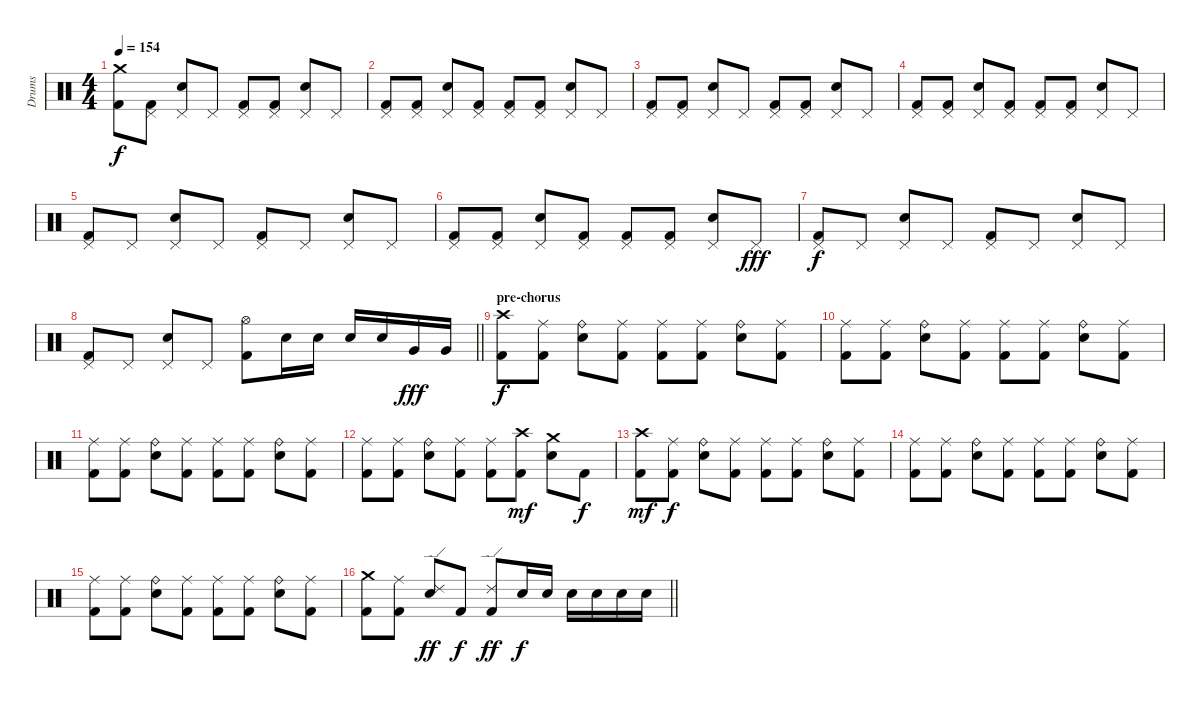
\track ("Drums" "Drums") {instrument percussion}
\staff {score}
\articulation defaults
\ts (4 4)
\tempo 154
\clef neutral
\ks c
("Crash medium (hit)" "Kick (hit) 2").8{dy f} ("Pedal Hi-Hat (hit)" "Kick (hit) 2").8 ("Pedal Hi-Hat (hit)" "Snare (hit) 2").8 "Pedal Hi-Hat (hit)".8 ("Pedal Hi-Hat (hit)" "Kick (hit) 2").8 ("Pedal Hi-Hat (hit)" "Kick (hit) 2").8 ("Pedal Hi-Hat (hit)" "Snare (hit) 2").8 "Pedal Hi-Hat (hit)".8 |
("Pedal Hi-Hat (hit)" "Kick (hit) 2").8 ("Pedal Hi-Hat (hit)" "Kick (hit) 2").8 ("Pedal Hi-Hat (hit)" "Snare (hit) 2").8 ("Pedal Hi-Hat (hit)" "Kick (hit) 2").8 ("Pedal Hi-Hat (hit)" "Kick (hit) 2").8 ("Pedal Hi-Hat (hit)" "Kick (hit) 2").8 ("Pedal Hi-Hat (hit)" "Snare (hit) 2").8 "Pedal Hi-Hat (hit)".8 |
("Pedal Hi-Hat (hit)" "Kick (hit) 2").8 ("Pedal Hi-Hat (hit)" "Kick (hit) 2").8 ("Pedal Hi-Hat (hit)" "Snare (hit) 2").8 "Pedal Hi-Hat (hit)".8 ("Pedal Hi-Hat (hit)" "Kick (hit) 2").8 ("Pedal Hi-Hat (hit)" "Kick (hit) 2").8 ("Pedal Hi-Hat (hit)" "Snare (hit) 2").8 "Pedal Hi-Hat (hit)".8 |
("Pedal Hi-Hat (hit)" "Kick (hit) 2").8 ("Pedal Hi-Hat (hit)" "Kick (hit) 2").8 ("Pedal Hi-Hat (hit)" "Snare (hit) 2").8 ("Pedal Hi-Hat (hit)" "Kick (hit) 2").8 ("Pedal Hi-Hat (hit)" "Kick (hit) 2").8 ("Pedal Hi-Hat (hit)" "Kick (hit) 2").8 ("Pedal Hi-Hat (hit)" "Snare (hit) 2").8 "Pedal Hi-Hat (hit)".8 |
("Pedal Hi-Hat (hit)" "Kick (hit) 2").8 "Pedal Hi-Hat (hit)".8 ("Pedal Hi-Hat (hit)" "Snare (hit) 2").8 "Pedal Hi-Hat (hit)".8 ("Pedal Hi-Hat (hit)" "Kick (hit) 2").8 "Pedal Hi-Hat (hit)".8 ("Pedal Hi-Hat (hit)" "Snare (hit) 2").8 "Pedal Hi-Hat (hit)".8 |
("Pedal Hi-Hat (hit)" "Kick (hit) 2").8 ("Pedal Hi-Hat (hit)" "Kick (hit) 2").8 ("Pedal Hi-Hat (hit)" "Snare (hit) 2").8 ("Pedal Hi-Hat (hit)" "Kick (hit) 2").8 ("Pedal Hi-Hat (hit)" "Kick (hit) 2").8 ("Pedal Hi-Hat (hit)" "Kick (hit) 2").8 ("Pedal Hi-Hat (hit)" "Snare (hit) 2").8 "Pedal Hi-Hat (hit)".8{dy fff} |
("Pedal Hi-Hat (hit)" "Kick (hit) 2").8{dy f} "Pedal Hi-Hat (hit)".8 ("Pedal Hi-Hat (hit)" "Snare (hit) 2").8 "Pedal Hi-Hat (hit)".8 ("Pedal Hi-Hat (hit)" "Kick (hit) 2").8 "Pedal Hi-Hat (hit)".8 ("Pedal Hi-Hat (hit)" "Snare (hit) 2").8 "Pedal Hi-Hat (hit)".8 |
\barLineRight lightlight
("Pedal Hi-Hat (hit)" "Kick (hit) 2").8 "Pedal Hi-Hat (hit)".8 ("Pedal Hi-Hat (hit)" "Snare (hit) 2").8 "Pedal Hi-Hat (hit)".8 ("Hi-Hat (open)" "Kick (hit) 2").8 "Snare (hit) 2".16 "Snare (hit) 2".16 "Snare (hit) 2".16 "Snare (hit) 2".16 "Very Low Tom (hit)".16{dy fff} "Very Low Tom (hit)".16 |
\section ("" "pre-chorus")
("Crash high (hit)" "Kick (hit) 2").8{dy f} ("Ride (middle)" "Kick (hit) 2").8 ("Ride (bell)" "Snare (hit) 2").8 ("Ride (middle)" "Kick (hit) 2").8 ("Ride (middle)" "Kick (hit) 2").8 ("Ride (middle)" "Kick (hit) 2").8 ("Ride (bell)" "Snare (hit) 2").8 ("Ride (middle)" "Kick (hit) 2").8 |
("Ride (middle)" "Kick (hit) 2").8 ("Ride (middle)" "Kick (hit) 2").8 ("Ride (bell)" "Snare (hit) 2").8 ("Ride (middle)" "Kick (hit) 2").8 ("Ride (middle)" "Kick (hit) 2").8 ("Ride (middle)" "Kick (hit) 2").8 ("Ride (bell)" "Snare (hit) 2").8 ("Ride (middle)" "Kick (hit) 2").8 |
("Ride (middle)" "Kick (hit) 2").8 ("Ride (middle)" "Kick (hit) 2").8 ("Ride (bell)" "Snare (hit) 2").8 ("Ride (middle)" "Kick (hit) 2").8 ("Ride (middle)" "Kick (hit) 2").8 ("Ride (middle)" "Kick (hit) 2").8 ("Ride (bell)" "Snare (hit) 2").8 ("Ride (middle)" "Kick (hit) 2").8 |
("Ride (middle)" "Kick (hit) 2").8 ("Ride (middle)" "Kick (hit) 2").8 ("Ride (bell)" "Snare (hit) 2").8 ("Ride (middle)" "Kick (hit) 2").8 ("Ride (middle)" "Kick (hit) 2").8 ("Crash high (hit)" "Kick (hit) 2").8{dy mf} ("Crash medium (hit)" "Snare (hit) 2").8 "Kick (hit) 2".8{dy f} |
("Crash high (hit)" "Kick (hit) 2").8{dy mf} ("Ride (middle)" "Kick (hit) 2").8{dy f} ("Ride (bell)" "Snare (hit) 2").8 ("Ride (middle)" "Kick (hit) 2").8 ("Ride (middle)" "Kick (hit) 2").8 ("Ride (middle)" "Kick (hit) 2").8 ("Ride (bell)" "Snare (hit) 2").8 ("Ride (middle)" "Kick (hit) 2").8 |
("Ride (middle)" "Kick (hit) 2").8 ("Ride (middle)" "Kick (hit) 2").8 ("Ride (bell)" "Snare (hit) 2").8 ("Ride (middle)" "Kick (hit) 2").8 ("Ride (middle)" "Kick (hit) 2").8 ("Ride (middle)" "Kick (hit) 2").8 ("Ride (bell)" "Snare (hit) 2").8 ("Ride (middle)" "Kick (hit) 2").8 |
("Ride (middle)" "Kick (hit) 2").8 ("Ride (middle)" "Kick (hit) 2").8 ("Ride (bell)" "Snare (hit) 2").8 ("Ride (middle)" "Kick (hit) 2").8 ("Ride (middle)" "Kick (hit) 2").8 ("Ride (middle)" "Kick (hit) 2").8 ("Ride (bell)" "Snare (hit) 2").8 ("Ride (middle)" "Kick (hit) 2").8 |
\barLineRight lightlight
("Crash medium (hit)" "Kick (hit) 2").8 ("Ride (middle)" "Kick (hit) 2").8 ("Ride (edge) 2" "Snare (hit) 2").8{dy ff} "Kick (hit) 2".8{dy f} ("Ride (edge) 2" "Kick (hit) 2").8{dy ff} "Snare (hit) 2".16{dy f} "Snare (hit) 2".16 "Snare (hit) 2".16 "Snare (hit) 2".16 "Snare (hit) 2".16 "Snare (hit) 2".16
